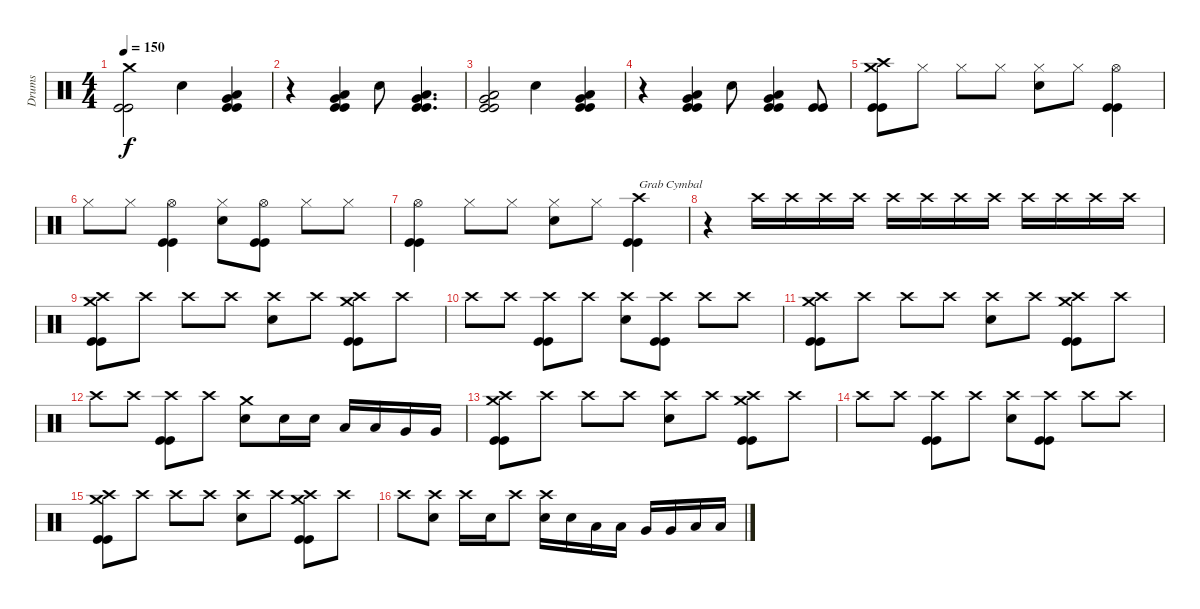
\track ("Drums" "Drums") {instrument percussion}
\staff {score}
\articulation defaults
\ts (4 4)
\tempo 150
\clef neutral
\ks c
("Crash medium (hit)" "Kick (hit)" "Kick (hit)").2{dy f} "Electric Snare (hit)".4 ("Low Tom (hit)" "Very Low Tom (hit)" "Kick (hit)" "Kick (hit)").4 |
r.4 ("Low Tom (hit)" "Very Low Tom (hit)" "Kick (hit)" "Kick (hit)").4 "Electric Snare (hit)".8 ("Very Low Tom (hit)" "Low Floor Tom (hit)" "Kick (hit)" "Kick (hit)").4{d} |
("Very Low Tom (hit)" "Low Floor Tom (hit)" "Kick (hit)" "Kick (hit)").2 "Electric Snare (hit)".4 ("Low Tom (hit)" "Very Low Tom (hit)" "Kick (hit)" "Kick (hit)").4 |
r.4 ("Low Tom (hit)" "Very Low Tom (hit)" "Kick (hit)" "Kick (hit)").4 "Electric Snare (hit)".8 ("Very Low Tom (hit)" "Low Floor Tom (hit)" "Kick (hit)" "Kick (hit)").4 ("Kick (hit)" "Kick (hit)").8 |
("Crash high (hit)" "Crash medium (hit)" "Kick (hit)" "Kick (hit)").8 "Hi-Hat (closed)".8 "Hi-Hat (closed)".8 "Hi-Hat (closed)".8 ("Hi-Hat (closed)" "Electric Snare (hit)").8 "Hi-Hat (closed)".8 ("Hi-Hat (open)" "Kick (hit)" "Kick (hit)").4 |
"Hi-Hat (closed)".8 "Hi-Hat (closed)".8 ("Hi-Hat (open)" "Kick (hit)" "Kick (hit)").4 ("Hi-Hat (closed)" "Electric Snare (hit)").8 ("Hi-Hat (open)" "Kick (hit)" "Kick (hit)").8 "Hi-Hat (closed)".8 "Hi-Hat (closed)".8 |
("Hi-Hat (open)" "Kick (hit)" "Kick (hit)").4 "Hi-Hat (closed)".8 "Hi-Hat (closed)".8 ("Hi-Hat (closed)" "Electric Snare (hit)").8 "Hi-Hat (closed)".8 ("Crash high (hit)" "Kick (hit)" "Kick (hit)").4{txt "Grab Cymbal"} |
r.4{volume 5} "Crash high (hit)".16{volume 16} "Crash high (hit)".16 "Crash high (hit)".16 "Crash high (hit)".16 "Crash high (hit)".16 "Crash high (hit)".16 "Crash high (hit)".16 "Crash high (hit)".16 "Crash high (hit)".16 "Crash high (hit)".16 "Crash high (hit)".16 "Crash high (hit)".16 |
("Crash high (hit)" "Crash medium (hit)" "Kick (hit)" "Kick (hit)").8 "Crash high (hit)".8 "Crash high (hit)".8 "Crash high (hit)".8 ("Crash high (hit)" "Electric Snare (hit)").8 "Crash high (hit)".8 ("Crash high (hit)" "Crash medium (hit)" "Kick (hit)" "Kick (hit)").8 "Crash high (hit)".8 |
"Crash high (hit)".8 "Crash high (hit)".8 ("Crash high (hit)" "Kick (hit)" "Kick (hit)").8 "Crash high (hit)".8 ("Crash high (hit)" "Electric Snare (hit)").8 ("Crash high (hit)" "Kick (hit)" "Kick (hit)").8 "Crash high (hit)".8 "Crash high (hit)".8 |
("Crash high (hit)" "Crash medium (hit)" "Kick (hit)" "Kick (hit)").8 "Crash high (hit)".8 "Crash high (hit)".8 "Crash high (hit)".8 ("Crash high (hit)" "Electric Snare (hit)").8 "Crash high (hit)".8 ("Crash high (hit)" "Crash medium (hit)" "Kick (hit)" "Kick (hit)").8 "Crash high (hit)".8 |
"Crash high (hit)".8 "Crash high (hit)".8 ("Crash high (hit)" "Kick (hit)" "Kick (hit)").8 "Crash high (hit)".8 ("Crash medium (hit)" "Electric Snare (hit)").8 "Electric Snare (hit)".16 "Electric Snare (hit)".16 "Low Tom (hit)".16 "Low Tom (hit)".16 "Very Low Tom (hit)".16 "Very Low Tom (hit)".16 |
("Crash high (hit)" "Crash medium (hit)" "Kick (hit)" "Kick (hit)").8 "Crash high (hit)".8 "Crash high (hit)".8 "Crash high (hit)".8 ("Crash high (hit)" "Electric Snare (hit)").8 "Crash high (hit)".8 ("Crash high (hit)" "Crash medium (hit)" "Kick (hit)" "Kick (hit)").8 "Crash high (hit)".8 |
"Crash high (hit)".8 "Crash high (hit)".8 ("Crash high (hit)" "Kick (hit)" "Kick (hit)").8 "Crash high (hit)".8 ("Crash high (hit)" "Electric Snare (hit)").8 ("Crash high (hit)" "Kick (hit)" "Kick (hit)").8 "Crash high (hit)".8 "Crash high (hit)".8 |
("Crash high (hit)" "Crash medium (hit)" "Kick (hit)" "Kick (hit)").8 "Crash high (hit)".8 "Crash high (hit)".8 "Crash high (hit)".8 ("Crash high (hit)" "Electric Snare (hit)").8 "Crash high (hit)".8 ("Crash high (hit)" "Crash medium (hit)" "Kick (hit)" "Kick (hit)").8 "Crash high (hit)".8 |
"Crash high (hit)".8 ("Crash high (hit)" "Electric Snare (hit)").8 "Crash high (hit)".16 "Electric Snare (hit)".16 "Crash high (hit)".8 ("Crash high (hit)" "Electric Snare (hit)").16 "Electric Snare (hit)".16 "Low Tom (hit)".16 "Low Tom (hit)".16 "Very Low Tom (hit)".16 "Very Low Tom (hit)".16 "Low Floor Tom (hit)".16 "Low Floor Tom (hit)".16
